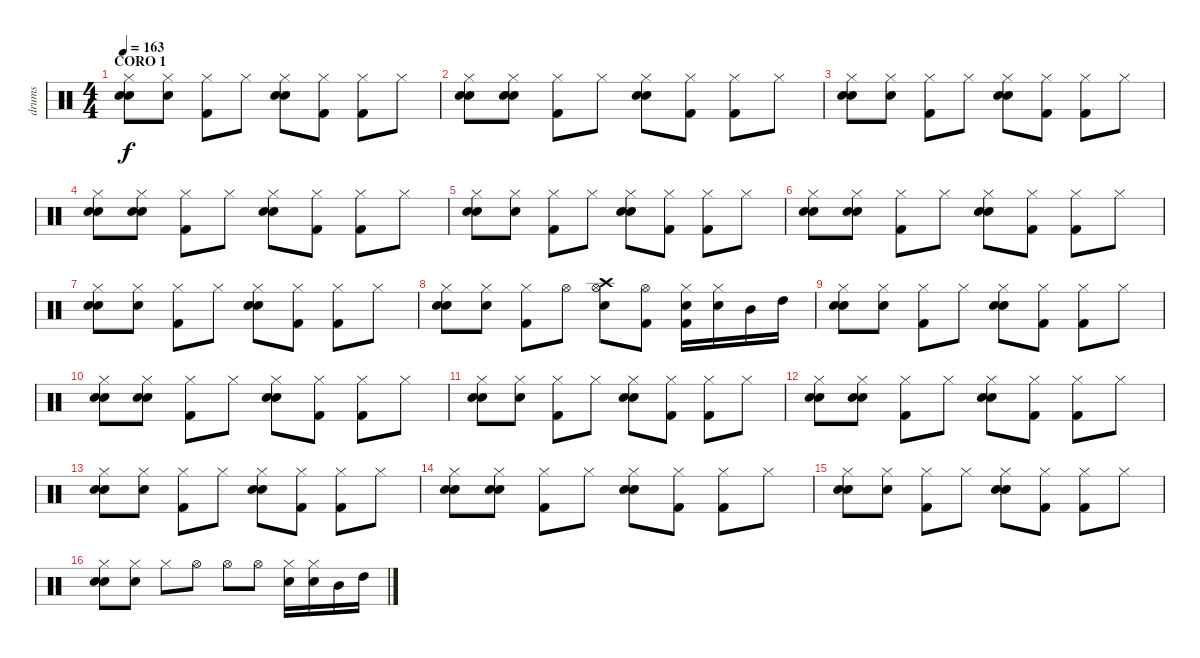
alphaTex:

\track ("drums" "drums") {instrument percussion}
\staff {score}
\articulation defaults
\ts (4 4)
\section ("" "CORO 1")
\tempo 163
\clef neutral
\ks c
("Hand Clap (hit)" "Hi-Hat (closed)" "Electric Snare (hit)").8{dy f} ("Hand Clap (hit)" "Hi-Hat (closed)").8 ("Hi-Hat (closed)" "Kick (hit) 2").8 "Hi-Hat (closed)".8 ("Hand Clap (hit)" "Hi-Hat (closed)" "Electric Snare (hit)").8 ("Hi-Hat (closed)" "Kick (hit) 2").8 ("Hi-Hat (closed)" "Kick (hit) 2").8 "Hi-Hat (closed)".8 |
("Hand Clap (hit)" "Hi-Hat (closed)" "Electric Snare (hit)").8 ("Hand Clap (hit)" "Hi-Hat (closed)" "Electric Snare (hit)").8 ("Hi-Hat (closed)" "Kick (hit) 2").8 "Hi-Hat (closed)".8 ("Hand Clap (hit)" "Hi-Hat (closed)" "Electric Snare (hit)").8 ("Hi-Hat (closed)" "Kick (hit) 2").8 ("Hi-Hat (closed)" "Kick (hit) 2").8 "Hi-Hat (closed)".8 |
("Hand Clap (hit)" "Hi-Hat (closed)" "Electric Snare (hit)").8 ("Hand Clap (hit)" "Hi-Hat (closed)").8 ("Hi-Hat (closed)" "Kick (hit) 2").8 "Hi-Hat (closed)".8 ("Hand Clap (hit)" "Hi-Hat (closed)" "Electric Snare (hit)").8 ("Hi-Hat (closed)" "Kick (hit) 2").8 ("Hi-Hat (closed)" "Kick (hit) 2").8 "Hi-Hat (closed)".8 |
("Hand Clap (hit)" "Hi-Hat (closed)" "Electric Snare (hit)").8 ("Hand Clap (hit)" "Hi-Hat (closed)" "Electric Snare (hit)").8 ("Hi-Hat (closed)" "Kick (hit) 2").8 "Hi-Hat (closed)".8 ("Hand Clap (hit)" "Hi-Hat (closed)" "Electric Snare (hit)").8 ("Hi-Hat (closed)" "Kick (hit) 2").8 ("Hi-Hat (closed)" "Kick (hit) 2").8 "Hi-Hat (closed)".8 |
("Hand Clap (hit)" "Hi-Hat (closed)" "Electric Snare (hit)").8 ("Hand Clap (hit)" "Hi-Hat (closed)").8 ("Hi-Hat (closed)" "Kick (hit) 2").8 "Hi-Hat (closed)".8 ("Hand Clap (hit)" "Hi-Hat (closed)" "Electric Snare (hit)").8 ("Hi-Hat (closed)" "Kick (hit) 2").8 ("Hi-Hat (closed)" "Kick (hit) 2").8 "Hi-Hat (closed)".8 |
("Hand Clap (hit)" "Hi-Hat (closed)" "Electric Snare (hit)").8 ("Hand Clap (hit)" "Hi-Hat (closed)" "Electric Snare (hit)").8 ("Hi-Hat (closed)" "Kick (hit) 2").8 "Hi-Hat (closed)".8 ("Hand Clap (hit)" "Hi-Hat (closed)" "Electric Snare (hit)").8 ("Hi-Hat (closed)" "Kick (hit) 2").8 ("Hi-Hat (closed)" "Kick (hit) 2").8 "Hi-Hat (closed)".8 |
("Hand Clap (hit)" "Hi-Hat (closed)" "Electric Snare (hit)").8 ("Hand Clap (hit)" "Hi-Hat (closed)").8 ("Hi-Hat (closed)" "Kick (hit) 2").8 "Hi-Hat (closed)".8 ("Hand Clap (hit)" "Hi-Hat (closed)" "Electric Snare (hit)").8 ("Hi-Hat (closed)" "Kick (hit) 2").8 ("Hi-Hat (closed)" "Kick (hit) 2").8 "Hi-Hat (closed)".8 |
("Hand Clap (hit)" "Electric Snare (hit)" "Hi-Hat (closed)").8 ("Hand Clap (hit)" "Hi-Hat (closed)").8 ("Hi-Hat (closed)" "Kick (hit) 2").8 "Hi-Hat (open)".8 ("Crash high (hit)" "Electric Snare (hit)" "Hi-Hat (open)").8 ("Hi-Hat (open)" "Kick (hit) 2").8 ("Electric Snare (hit)" "Hi-Hat (closed)" "Kick (hit) 2").16 ("Electric Snare (hit)" "Hi-Hat (closed)").16 "Mid Tom (hit)".16 "High Tom (hit)".16 |
("Hand Clap (hit)" "Hi-Hat (closed)" "Electric Snare (hit)").8 ("Hand Clap (hit)" "Hi-Hat (closed)").8 ("Hi-Hat (closed)" "Kick (hit) 2").8 "Hi-Hat (closed)".8 ("Hand Clap (hit)" "Hi-Hat (closed)" "Electric Snare (hit)").8 ("Hi-Hat (closed)" "Kick (hit) 2").8 ("Hi-Hat (closed)" "Kick (hit) 2").8 "Hi-Hat (closed)".8 |
("Hand Clap (hit)" "Hi-Hat (closed)" "Electric Snare (hit)").8 ("Hand Clap (hit)" "Hi-Hat (closed)" "Electric Snare (hit)").8 ("Hi-Hat (closed)" "Kick (hit) 2").8 "Hi-Hat (closed)".8 ("Hand Clap (hit)" "Hi-Hat (closed)" "Electric Snare (hit)").8 ("Hi-Hat (closed)" "Kick (hit) 2").8 ("Hi-Hat (closed)" "Kick (hit) 2").8 "Hi-Hat (closed)".8 |
("Hand Clap (hit)" "Hi-Hat (closed)" "Electric Snare (hit)").8 ("Hand Clap (hit)" "Hi-Hat (closed)").8 ("Hi-Hat (closed)" "Kick (hit) 2").8 "Hi-Hat (closed)".8 ("Hand Clap (hit)" "Hi-Hat (closed)" "Electric Snare (hit)").8 ("Hi-Hat (closed)" "Kick (hit) 2").8 ("Hi-Hat (closed)" "Kick (hit) 2").8 "Hi-Hat (closed)".8 |
("Hand Clap (hit)" "Hi-Hat (closed)" "Electric Snare (hit)").8 ("Hand Clap (hit)" "Hi-Hat (closed)" "Electric Snare (hit)").8 ("Hi-Hat (closed)" "Kick (hit) 2").8 "Hi-Hat (closed)".8 ("Hand Clap (hit)" "Hi-Hat (closed)" "Electric Snare (hit)").8 ("Hi-Hat (closed)" "Kick (hit) 2").8 ("Hi-Hat (closed)" "Kick (hit) 2").8 "Hi-Hat (closed)".8 |
("Hand Clap (hit)" "Hi-Hat (closed)" "Electric Snare (hit)").8 ("Hand Clap (hit)" "Hi-Hat (closed)").8 ("Hi-Hat (closed)" "Kick (hit) 2").8 "Hi-Hat (closed)".8 ("Hand Clap (hit)" "Hi-Hat (closed)" "Electric Snare (hit)").8 ("Hi-Hat (closed)" "Kick (hit) 2").8 ("Hi-Hat (closed)" "Kick (hit) 2").8 "Hi-Hat (closed)".8 |
("Hand Clap (hit)" "Hi-Hat (closed)" "Electric Snare (hit)").8 ("Hand Clap (hit)" "Hi-Hat (closed)" "Electric Snare (hit)").8 ("Hi-Hat (closed)" "Kick (hit) 2").8 "Hi-Hat (closed)".8 ("Hand Clap (hit)" "Hi-Hat (closed)" "Electric Snare (hit)").8 ("Hi-Hat (closed)" "Kick (hit) 2").8 ("Hi-Hat (closed)" "Kick (hit) 2").8 "Hi-Hat (closed)".8 |
("Hand Clap (hit)" "Hi-Hat (closed)" "Electric Snare (hit)").8 ("Hand Clap (hit)" "Hi-Hat (closed)").8 ("Hi-Hat (closed)" "Kick (hit) 2").8 "Hi-Hat (closed)".8 ("Hand Clap (hit)" "Hi-Hat (closed)" "Electric Snare (hit)").8 ("Hi-Hat (closed)" "Kick (hit) 2").8 ("Hi-Hat (closed)" "Kick (hit) 2").8 "Hi-Hat (closed)".8 |
("Hand Clap (hit)" "Electric Snare (hit)" "Hi-Hat (closed)").8 ("Hand Clap (hit)" "Hi-Hat (closed)").8 "Hi-Hat (closed)".8 "Hi-Hat (open)".8 "Hi-Hat (open)".8 "Hi-Hat (open)".8 ("Electric Snare (hit)" "Hi-Hat (closed)").16 ("Electric Snare (hit)" "Hi-Hat (closed)").16 "Mid Tom (hit)".16 "High Tom (hit)".16
